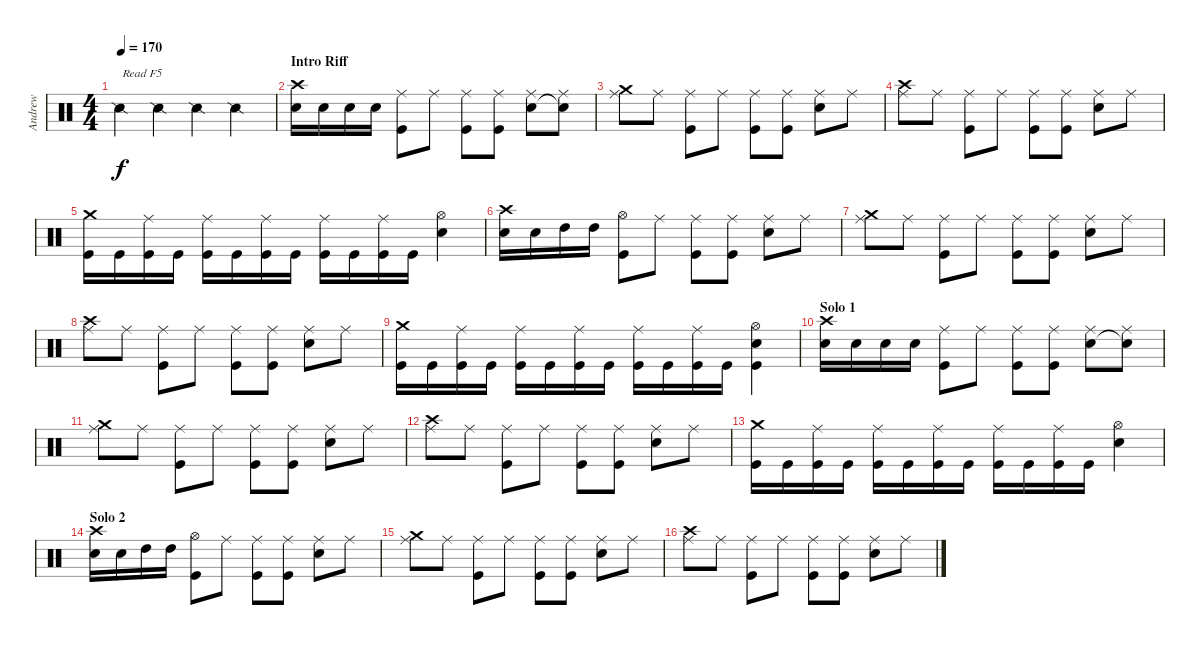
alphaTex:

\track ("Andrew" "Andrew") {instrument percussion}
\staff {score}
\articulation defaults
\ts (4 4)
\tempo 170
\clef neutral
\ks c "Snare (side stick) 2".4{txt "Read F5" dy f} "Snare (side stick) 2".4 "Snare (side stick) 2".4 "Snare (side stick) 2".4
|
\section ("" "Intro Riff")
("Crash high (hit)" "Snare (hit) 2").16 "Snare (hit) 2".16 "Snare (hit) 2".16 "Snare (hit) 2".16 ("Ride (middle)" "Kick (hit)").8 "Ride (middle)".8 ("Ride (middle)" "Kick (hit)").8 ("Ride (middle)" "Kick (hit)").8 ("Ride (middle)" "Snare (hit) 2").8 ("Ride (middle)" "Snare (hit)"{t}).8 |
("Crash medium (hit)" "Ride (middle)").8 "Ride (middle)".8 ("Ride (middle)" "Kick (hit)").8 "Ride (middle)".8 ("Ride (middle)" "Kick (hit)").8 ("Ride (middle)" "Kick (hit)").8 ("Ride (middle)" "Snare (hit) 2").8 "Ride (middle)".8 |
("Crash high (hit)" "Ride (middle)").8 "Ride (middle)".8 ("Ride (middle)" "Kick (hit)").8 "Ride (middle)".8 ("Ride (middle)" "Kick (hit)").8 ("Ride (middle)" "Kick (hit)").8 ("Ride (middle)" "Snare (hit) 2").8 "Ride (middle)".8 |
("Crash medium (hit)" "Kick (hit)").16 "Kick (hit)".16 ("Ride (middle)" "Kick (hit)").16 "Kick (hit)".16 ("Ride (middle)" "Kick (hit)").16 "Kick (hit)".16 ("Ride (middle)" "Kick (hit)").16 "Kick (hit)".16 ("Ride (middle)" "Kick (hit)").16 "Kick (hit)".16 ("Ride (middle)" "Kick (hit)").16 "Kick (hit)".16 ("Hi-Hat (open)" "Snare (hit) 2").4 |
\section ("" "")
("Crash high (hit)" "Snare (hit) 2").16 "Snare (hit) 2".16 "High Tom (hit)".16 "High Tom (hit)".16 ("Hi-Hat (open)" "Kick (hit)").8 "Ride (middle)".8 ("Ride (middle)" "Kick (hit)").8 ("Ride (middle)" "Kick (hit)").8 ("Ride (middle)" "Snare (hit) 2").8 "Ride (middle)".8 |
("Crash medium (hit)" "Ride (middle)").8 "Ride (middle)".8 ("Ride (middle)" "Kick (hit)").8 "Ride (middle)".8 ("Ride (middle)" "Kick (hit)").8 ("Ride (middle)" "Kick (hit)").8 ("Ride (middle)" "Snare (hit) 2").8 "Ride (middle)".8 |
("Crash high (hit)" "Ride (middle)").8 "Ride (middle)".8 ("Ride (middle)" "Kick (hit)").8 "Ride (middle)".8 ("Ride (middle)" "Kick (hit)").8 ("Ride (middle)" "Kick (hit)").8 ("Ride (middle)" "Snare (hit) 2").8 "Ride (middle)".8 |
("Crash medium (hit)" "Kick (hit)").16 "Kick (hit)".16 ("Ride (middle)" "Kick (hit)").16 "Kick (hit)".16 ("Ride (middle)" "Kick (hit)").16 "Kick (hit)".16 ("Ride (middle)" "Kick (hit)").16 "Kick (hit)".16 ("Ride (middle)" "Kick (hit)").16 "Kick (hit)".16 ("Ride (middle)" "Kick (hit)").16 "Kick (hit)".16 ("Hi-Hat (open)" "Snare (hit) 2" "Kick (hit)").4 |
\section ("" "Solo 1")
("Crash high (hit)" "Snare (hit) 2").16 "Snare (hit) 2".16 "Snare (hit) 2".16 "Snare (hit) 2".16 ("Ride (middle)" "Kick (hit)").8 "Ride (middle)".8 ("Ride (middle)" "Kick (hit)").8 ("Ride (middle)" "Kick (hit)").8 ("Ride (middle)" "Snare (hit) 2").8 ("Ride (middle)" "Snare (hit)"{t}).8 |
("Crash medium (hit)" "Ride (middle)").8 "Ride (middle)".8 ("Ride (middle)" "Kick (hit)").8 "Ride (middle)".8 ("Ride (middle)" "Kick (hit)").8 ("Ride (middle)" "Kick (hit)").8 ("Ride (middle)" "Snare (hit) 2").8 "Ride (middle)".8 |
("Crash high (hit)" "Ride (middle)").8 "Ride (middle)".8 ("Ride (middle)" "Kick (hit)").8 "Ride (middle)".8 ("Ride (middle)" "Kick (hit)").8 ("Ride (middle)" "Kick (hit)").8 ("Ride (middle)" "Snare (hit) 2").8 "Ride (middle)".8 |
("Crash medium (hit)" "Kick (hit)").16 "Kick (hit)".16 ("Ride (middle)" "Kick (hit)").16 "Kick (hit)".16 ("Ride (middle)" "Kick (hit)").16 "Kick (hit)".16 ("Ride (middle)" "Kick (hit)").16 "Kick (hit)".16 ("Ride (middle)" "Kick (hit)").16 "Kick (hit)".16 ("Ride (middle)" "Kick (hit)").16 "Kick (hit)".16 ("Hi-Hat (open)" "Snare (hit) 2").4 |
\section ("" "Solo 2")
("Crash high (hit)" "Snare (hit) 2").16 "Snare (hit) 2".16 "High Tom (hit)".16 "High Tom (hit)".16 ("Hi-Hat (open)" "Kick (hit)").8 "Ride (middle)".8 ("Ride (middle)" "Kick (hit)").8 ("Ride (middle)" "Kick (hit)").8 ("Ride (middle)" "Snare (hit) 2").8 "Ride (middle)".8 |
("Crash medium (hit)" "Ride (middle)").8 "Ride (middle)".8 ("Ride (middle)" "Kick (hit)").8 "Ride (middle)".8 ("Ride (middle)" "Kick (hit)").8 ("Ride (middle)" "Kick (hit)").8 ("Ride (middle)" "Snare (hit) 2").8 "Ride (middle)".8 |
("Crash high (hit)" "Ride (middle)").8 "Ride (middle)".8 ("Ride (middle)" "Kick (hit)").8 "Ride (middle)".8 ("Ride (middle)" "Kick (hit)").8 ("Ride (middle)" "Kick (hit)").8 ("Ride (middle)" "Snare (hit) 2").8 "Ride (middle)".8
